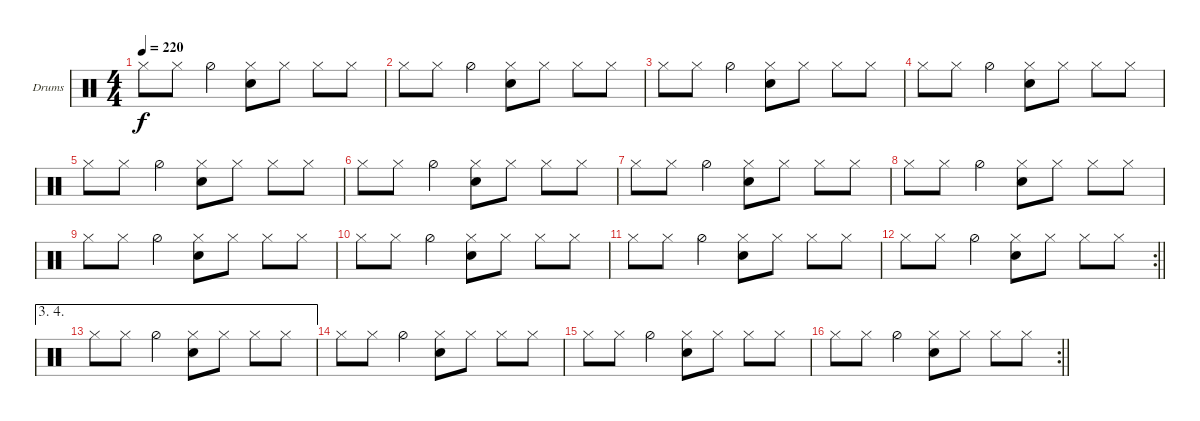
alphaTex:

\bracketExtendMode groupsimilarinstruments
\firstSystemTrackNameOrientation horizontal
\otherSystemsTrackNameOrientation horizontal
\track ("Drums" "Drums") {instrument percussion}
\staff {score}
\articulation defaults
\ts (4 4)
\tempo 220
\clef neutral
\scale
0.333333
\ks c "Hi-Hat (closed)".8{dy f} "Hi-Hat (closed)".8 "Hi-Hat (half)".4
("Hi-Hat (closed)" "Snare (hit) 2").8 "Hi-Hat (closed)".8 "Hi-Hat (closed)".8 "Hi-Hat (closed)".8 |
\scale
0.333333 "Hi-Hat (closed)".8 "Hi-Hat (closed)".8 "Hi-Hat (half)".4 ("Hi-Hat (closed)" "Snare (hit) 2").8 "Hi-Hat (closed)".8 "Hi-Hat (closed)".8 "Hi-Hat (closed)".8 |
\scale
0.333333 "Hi-Hat (closed)".8 "Hi-Hat (closed)".8 "Hi-Hat (half)".4 ("Hi-Hat (closed)" "Snare (hit) 2").8 "Hi-Hat (closed)".8 "Hi-Hat (closed)".8 "Hi-Hat (closed)".8 |
\scale
0.333333 "Hi-Hat (closed)".8 "Hi-Hat (closed)".8 "Hi-Hat (half)".4 ("Hi-Hat (closed)" "Snare (hit) 2").8 "Hi-Hat (closed)".8 "Hi-Hat (closed)".8 "Hi-Hat (closed)".8 |
\scale
0.333333 "Hi-Hat (closed)".8 "Hi-Hat (closed)".8 "Hi-Hat (half)".4 ("Hi-Hat (closed)" "Snare (hit) 2").8 "Hi-Hat (closed)".8 "Hi-Hat (closed)".8 "Hi-Hat (closed)".8 |
\scale
0.333333 "Hi-Hat (closed)".8 "Hi-Hat (closed)".8 "Hi-Hat (half)".4 ("Hi-Hat (closed)" "Snare (hit) 2").8 "Hi-Hat (closed)".8 "Hi-Hat (closed)".8 "Hi-Hat (closed)".8 |
\scale
0.333333 "Hi-Hat (closed)".8 "Hi-Hat (closed)".8 "Hi-Hat (half)".4 ("Hi-Hat (closed)" "Snare (hit) 2").8 "Hi-Hat (closed)".8 "Hi-Hat (closed)".8 "Hi-Hat (closed)".8 |
\scale
0.333333 "Hi-Hat (closed)".8 "Hi-Hat (closed)".8 "Hi-Hat (half)".4 ("Hi-Hat (closed)" "Snare (hit) 2").8 "Hi-Hat (closed)".8 "Hi-Hat (closed)".8 "Hi-Hat (closed)".8 |
\scale
0.333333 "Hi-Hat (closed)".8 "Hi-Hat (closed)".8 "Hi-Hat (half)".4 ("Hi-Hat (closed)" "Snare (hit) 2").8 "Hi-Hat (closed)".8 "Hi-Hat (closed)".8 "Hi-Hat (closed)".8 |
\scale
0.333333 "Hi-Hat (closed)".8 "Hi-Hat (closed)".8 "Hi-Hat (half)".4 ("Hi-Hat (closed)" "Snare (hit) 2").8 "Hi-Hat (closed)".8 "Hi-Hat (closed)".8 "Hi-Hat (closed)".8 |
\scale
0.333333 "Hi-Hat (closed)".8 "Hi-Hat (closed)".8 "Hi-Hat (half)".4 ("Hi-Hat (closed)" "Snare (hit) 2").8 "Hi-Hat (closed)".8 "Hi-Hat (closed)".8 "Hi-Hat (closed)".8 |
\rc 2
\scale
0.355932
\barLineRight lightlight "Hi-Hat (closed)".8 "Hi-Hat (closed)".8 "Hi-Hat (half)".4
("Hi-Hat (closed)" "Snare (hit) 2").8 "Hi-Hat (closed)".8 "Hi-Hat (closed)".8 "Hi-Hat (closed)".8 |
\ae (3 4)
\scale
0.322034 "Hi-Hat (closed)".8 "Hi-Hat (closed)".8 "Hi-Hat (half)".4 ("Hi-Hat (closed)" "Snare (hit) 2").8 "Hi-Hat (closed)".8 "Hi-Hat (closed)".8 "Hi-Hat (closed)".8 |
\scale
0.322034 "Hi-Hat (closed)".8 "Hi-Hat (closed)".8 "Hi-Hat (half)".4 ("Hi-Hat (closed)" "Snare (hit) 2").8 "Hi-Hat (closed)".8 "Hi-Hat (closed)".8 "Hi-Hat (closed)".8 |
\scale
0.322034 "Hi-Hat (closed)".8 "Hi-Hat (closed)".8 "Hi-Hat (half)".4 ("Hi-Hat (closed)" "Snare (hit) 2").8 "Hi-Hat (closed)".8 "Hi-Hat (closed)".8 "Hi-Hat (closed)".8 |
\rc 2
\scale
0.355932
\barLineRight lightlight "Hi-Hat (closed)".8 "Hi-Hat (closed)".8 "Hi-Hat (half)".4
("Hi-Hat (closed)" "Snare (hit) 2").8 "Hi-Hat (closed)".8 "Hi-Hat (closed)".8 "Hi-Hat (closed)".8
